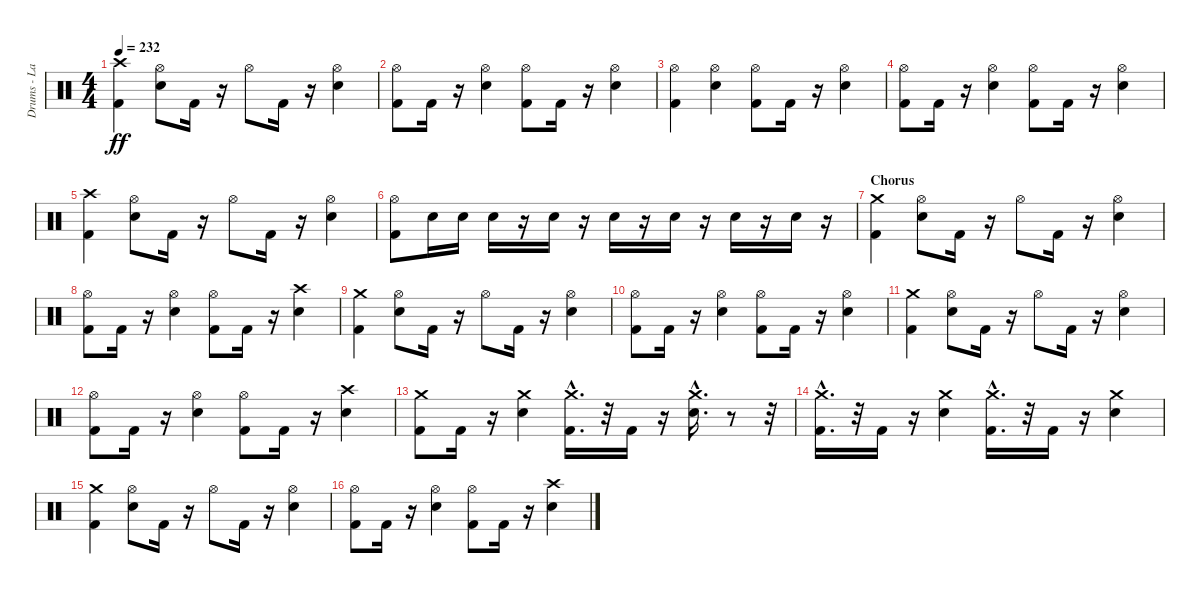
\track ("Drums - Larzon" "Drums - La") {instrument percussion}
\staff {score}
\articulation defaults
\ts (4 4)
\tempo 232
\clef neutral
\ks c
("Kick (hit) 2" "Crash high (hit)").4{dy ff} ("Hi-Hat (open)" "Electric Snare (hit)").8 "Kick (hit) 2".16 r.16 "Hi-Hat (open)".8 "Kick (hit) 2".16 r.16 ("Electric Snare (hit)" "Hi-Hat (open)").4 |
("Kick (hit) 2" "Hi-Hat (open)").8 "Kick (hit) 2".16 r.16 ("Electric Snare (hit)" "Hi-Hat (open)").4 ("Kick (hit) 2" "Hi-Hat (open)").8 "Kick (hit) 2".16 r.16 ("Electric Snare (hit)" "Hi-Hat (open)").4 |
("Kick (hit) 2" "Hi-Hat (open)").4 ("Hi-Hat (open)" "Electric Snare (hit)").4 ("Hi-Hat (open)" "Kick (hit) 2").8 "Kick (hit) 2".16 r.16 ("Electric Snare (hit)" "Hi-Hat (open)").4 |
("Kick (hit) 2" "Hi-Hat (open)").8 "Kick (hit) 2".16 r.16 ("Electric Snare (hit)" "Hi-Hat (open)").4 ("Kick (hit) 2" "Hi-Hat (open)").8 "Kick (hit) 2".16 r.16 ("Electric Snare (hit)" "Hi-Hat (open)").4 |
("Crash high (hit)" "Kick (hit) 2").4 ("Hi-Hat (open)" "Electric Snare (hit)").8 "Kick (hit) 2".16 r.16 "Hi-Hat (open)".8 "Kick (hit) 2".16 r.16 ("Hi-Hat (open)" "Electric Snare (hit)").4 |
("Hi-Hat (open)" "Kick (hit) 2").8 "Electric Snare (hit)".16 "Electric Snare (hit)".16 "Electric Snare (hit)".16 r.16 "Electric Snare (hit)".16 r.16 "Electric Snare (hit)".16 r.16 "Electric Snare (hit)".16 r.16 "Electric Snare (hit)".16 r.16 "Electric Snare (hit)".16 r.16 |
\section ("" "Chorus")
("Kick (hit) 2" "Crash medium (hit)").4 ("Electric Snare (hit)" "Hi-Hat (open)").8 "Kick (hit) 2".16 r.16 "Hi-Hat (open)".8 "Kick (hit) 2".16 r.16 ("Electric Snare (hit)" "Hi-Hat (open)").4 |
("Kick (hit) 2" "Hi-Hat (open)").8 "Kick (hit) 2".16 r.16 ("Electric Snare (hit)" "Hi-Hat (open)").4 ("Kick (hit) 2" "Hi-Hat (open)").8 "Kick (hit) 2".16 r.16 ("Electric Snare (hit)" "Crash high (hit)").4 |
("Kick (hit) 2" "Crash medium (hit)").4 ("Electric Snare (hit)" "Hi-Hat (open)").8 "Kick (hit) 2".16 r.16 "Hi-Hat (open)".8 "Kick (hit) 2".16 r.16 ("Electric Snare (hit)" "Hi-Hat (open)").4 |
("Kick (hit) 2" "Hi-Hat (open)").8 "Kick (hit) 2".16 r.16 ("Electric Snare (hit)" "Hi-Hat (open)").4 ("Kick (hit) 2" "Hi-Hat (open)").8 "Kick (hit) 2".16 r.16 ("Electric Snare (hit)" "Hi-Hat (open)").4 |
("Kick (hit) 2" "Crash medium (hit)").4 ("Electric Snare (hit)" "Hi-Hat (open)").8 "Kick (hit) 2".16 r.16 "Hi-Hat (open)".8 "Kick (hit) 2".16 r.16 ("Electric Snare (hit)" "Hi-Hat (open)").4 |
("Kick (hit) 2" "Hi-Hat (open)").8 "Kick (hit) 2".16 r.16 ("Electric Snare (hit)" "Hi-Hat (open)").4 ("Kick (hit) 2" "Hi-Hat (open)").8 "Kick (hit) 2".16 r.16 ("Electric Snare (hit)" "Crash high (hit)").4 |
("Kick (hit) 2" "Crash medium (hit)").8 "Kick (hit) 2".16 r.16 ("Electric Snare (hit)" "Crash medium (hit)").4 ("Crash medium (hit)"{hac} "Kick (hit) 2").16{d} r.32 "Kick (hit) 2".16 r.16 ("Electric Snare (hit)" "Crash medium (hit)"{hac}).16{d} r.8 r.32 |
("Kick (hit) 2" "Crash medium (hit)"{hac}).16{d} r.32 "Kick (hit) 2".16 r.16 ("Electric Snare (hit)" "Crash medium (hit)").4 ("Kick (hit) 2" "Crash medium (hit)"{hac}).16{d} r.32 "Kick (hit) 2".16 r.16 ("Electric Snare (hit)" "Crash medium (hit)").4 |
("Kick (hit) 2" "Crash medium (hit)").4 ("Electric Snare (hit)" "Hi-Hat (open)").8 "Kick (hit) 2".16 r.16 "Hi-Hat (open)".8 "Kick (hit) 2".16 r.16 ("Electric Snare (hit)" "Hi-Hat (open)").4 |
("Kick (hit) 2" "Hi-Hat (open)").8 "Kick (hit) 2".16 r.16 ("Electric Snare (hit)" "Hi-Hat (open)").4 ("Kick (hit) 2" "Hi-Hat (open)").8 "Kick (hit) 2".16 r.16 ("Electric Snare (hit)" "Crash high (hit)").4
